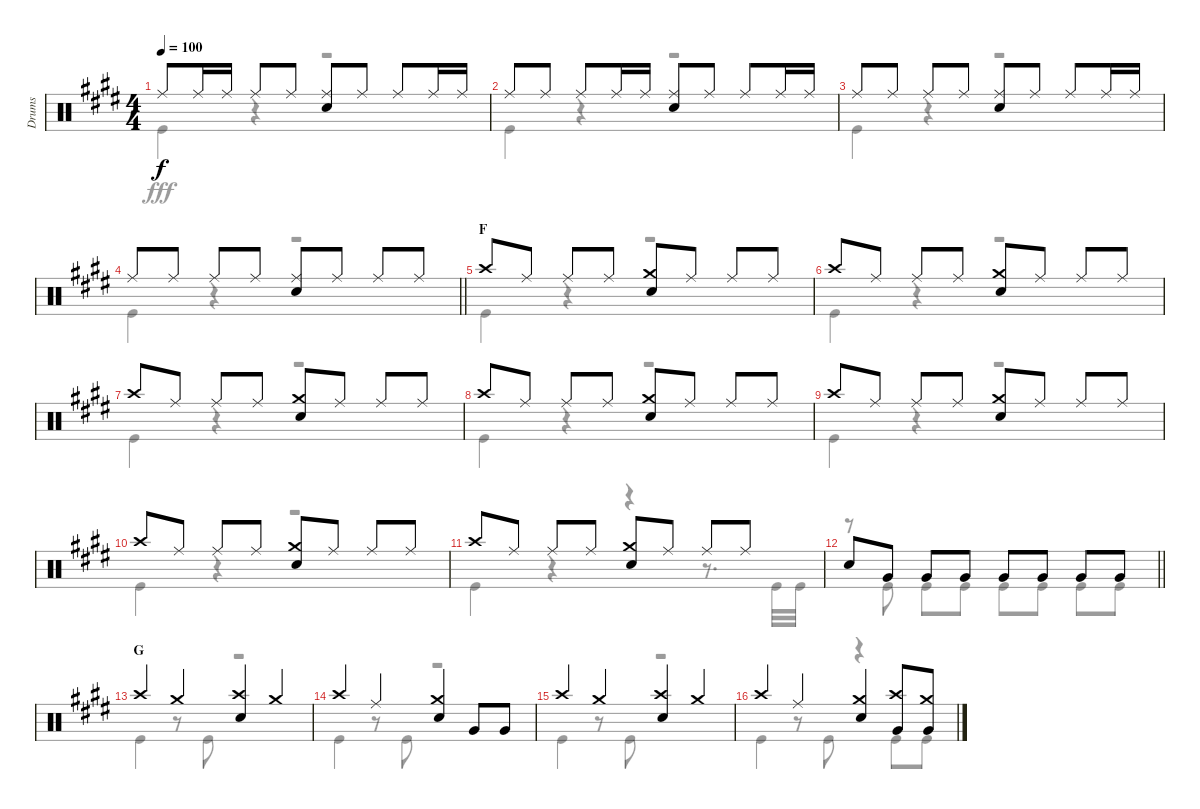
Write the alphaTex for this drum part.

\track ("Drums" "Drums") {instrument percussion}
\staff {score}
\articulation defaults
\voice
\ts (4 4)
\tempo 100
\clef neutral
\ks e "Ride (middle)".8{dy f} "Ride (middle)".16 "Ride (middle)".16 "Ride (middle)".8 "Ride (middle)".8
("Ride (middle)" "Snare (hit) 2").8 "Ride (middle)".8 "Ride (middle)".8 "Ride (middle)".16 "Ride (middle)".16 |
"Ride (middle)".8 "Ride (middle)".8 "Ride (middle)".8 "Ride (middle)".16 "Ride (middle)".16 ("Ride (middle)" "Snare (hit) 2").8 "Ride (middle)".8 "Ride (middle)".8 "Ride (middle)".16 "Ride (middle)".16 |
"Ride (middle)".8 "Ride (middle)".8 "Ride (middle)".8 "Ride (middle)".8 ("Ride (middle)" "Snare (hit) 2").8 "Ride (middle)".8 "Ride (middle)".8 "Ride (middle)".16 "Ride (middle)".16 |
\barLineRight lightlight "Ride (middle)".8 "Ride (middle)".8 "Ride (middle)".8 "Ride (middle)".8
("Ride (middle)" "Snare (hit) 2").8 "Ride (middle)".8 "Ride (middle)".8 "Ride (middle)".8 |
\section ("" "F")
"Crash high (hit)".8 "Ride (middle)".8 "Ride (middle)".8 "Ride (middle)".8 ("Crash medium (hit)" "Snare (hit) 2").8 "Ride (middle)".8 "Ride (middle)".8 "Ride (middle)".8 |
"Crash high (hit)".8 "Ride (middle)".8 "Ride (middle)".8 "Ride (middle)".8 ("Crash medium (hit)" "Snare (hit) 2").8 "Ride (middle)".8 "Ride (middle)".8 "Ride (middle)".8 |
"Crash high (hit)".8 "Ride (middle)".8 "Ride (middle)".8 "Ride (middle)".8 ("Crash medium (hit)" "Snare (hit) 2").8 "Ride (middle)".8 "Ride (middle)".8 "Ride (middle)".8 |
"Crash high (hit)".8 "Ride (middle)".8 "Ride (middle)".8 "Ride (middle)".8 ("Crash medium (hit)" "Snare (hit) 2").8 "Ride (middle)".8 "Ride (middle)".8 "Ride (middle)".8 |
"Crash high (hit)".8 "Ride (middle)".8 "Ride (middle)".8 "Ride (middle)".8 ("Crash medium (hit)" "Snare (hit) 2").8 "Ride (middle)".8 "Ride (middle)".8 "Ride (middle)".8 |
"Crash high (hit)".8 "Ride (middle)".8 "Ride (middle)".8 "Ride (middle)".8 ("Crash medium (hit)" "Snare (hit) 2").8 "Ride (middle)".8 "Ride (middle)".8 "Ride (middle)".8 |
"Crash high (hit)".8 "Ride (middle)".8 "Ride (middle)".8 "Ride (middle)".8 ("Crash medium (hit)" "Snare (hit) 2").8 "Ride (middle)".8 "Ride (middle)".8 "Ride (middle)".8 |
\barLineRight lightlight "Snare (hit) 2".8 "Very Low Tom (hit)".8 "Very Low Tom (hit)".8 "Very Low Tom (hit)".8 "Very Low Tom (hit)".8 "Very Low Tom (hit)".8 "Very Low Tom (hit)".8 "Very Low Tom (hit)".8
|
\section ("" "G")
"Crash high (hit)".4 "Crash medium (hit)".4 ("Crash high (hit)" "Snare (hit) 2").4 "Crash medium (hit)".4 |
"Crash high (hit)".4 "Ride (middle)".4 ("Crash medium (hit)" "Snare (hit) 2").4 "Very Low Tom (hit)".8 "Very Low Tom (hit)".8 |
"Crash high (hit)".4 "Crash medium (hit)".4 ("Crash high (hit)" "Snare (hit) 2").4 "Crash medium (hit)".4 |
"Crash high (hit)".4 "Ride (middle)".4 ("Crash medium (hit)" "Snare (hit) 2").4 ("Crash high (hit)" "Very Low Tom (hit)").8 ("Crash medium (hit)" "Very Low Tom (hit)").8
\voice
\clef neutral
\ottava regular
\simile none
\ks e "Kick (hit)".4{dy fff}
r.4 r.2 |
"Kick (hit)".4 r.4 r.2 |
"Kick (hit)".4 r.4 r.2 |
\barLineRight lightlight "Kick (hit)".4
r.4 r.2 |
"Kick (hit)".4 r.4 r.2 |
"Kick (hit)".4 r.4 r.2 |
"Kick (hit)".4 r.4 r.2 |
"Kick (hit)".4 r.4 r.2 |
"Kick (hit)".4 r.4 r.2 |
"Kick (hit)".4 r.4 r.2 |
"Kick (hit)".4 r.4 r.4 r.8{d} "Kick (hit)".32 "Kick (hit)".32 |
\barLineRight lightlight
r.8 "Kick (hit)".8 "Kick (hit)".8 "Kick (hit)".8 "Kick (hit)".8 "Kick (hit)".8 "Kick (hit)".8 "Kick (hit)".8 |
"Kick (hit)".4 r.8 "Kick (hit)".8 r.2 |
"Kick (hit)".4 r.8 "Kick (hit)".8 r.2 |
"Kick (hit)".4 r.8 "Kick (hit)".8 r.2 |
"Kick (hit)".4 r.8 "Kick (hit)".8 r.4 "Kick (hit)".8 "Kick (hit)".8
